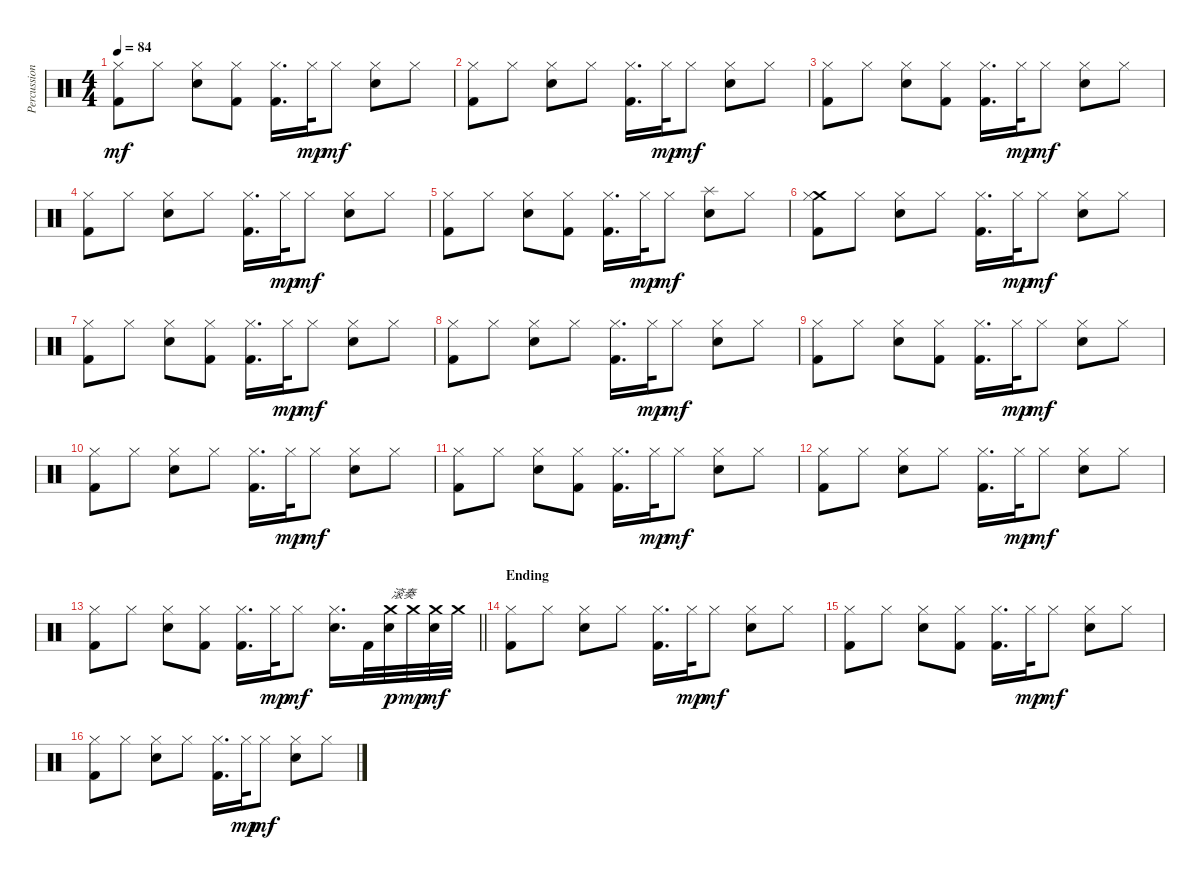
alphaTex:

\track ("Percussion" "Percussion") {instrument percussion}
\staff {score}
\articulation defaults
\ts (4 4)
\tempo 84
\clef neutral
\ks c
("Hi-Hat (closed)" "Kick (hit) 2").8{dy mf} "Hi-Hat (closed)".8 ("Hi-Hat (closed)" "Electric Snare (hit)").8 ("Hi-Hat (closed)" "Kick (hit) 2").8 ("Hi-Hat (closed)" "Kick (hit) 2").16{d} "Hi-Hat (closed)".32{dy mp} "Hi-Hat (closed)".8{dy mf} ("Hi-Hat (closed)" "Electric Snare (hit)").8 "Hi-Hat (closed)".8 |
("Hi-Hat (closed)" "Kick (hit) 2").8 "Hi-Hat (closed)".8 ("Hi-Hat (closed)" "Electric Snare (hit)").8 "Hi-Hat (closed)".8 ("Hi-Hat (closed)" "Kick (hit) 2").16{d} "Hi-Hat (closed)".32{dy mp} "Hi-Hat (closed)".8{dy mf} ("Hi-Hat (closed)" "Electric Snare (hit)").8 "Hi-Hat (closed)".8 |
("Hi-Hat (closed)" "Kick (hit) 2").8 "Hi-Hat (closed)".8 ("Hi-Hat (closed)" "Electric Snare (hit)").8 ("Hi-Hat (closed)" "Kick (hit) 2").8 ("Hi-Hat (closed)" "Kick (hit) 2").16{d} "Hi-Hat (closed)".32{dy mp} "Hi-Hat (closed)".8{dy mf} ("Hi-Hat (closed)" "Electric Snare (hit)").8 "Hi-Hat (closed)".8 |
("Hi-Hat (closed)" "Kick (hit) 2").8 "Hi-Hat (closed)".8 ("Hi-Hat (closed)" "Electric Snare (hit)").8 "Hi-Hat (closed)".8 ("Hi-Hat (closed)" "Kick (hit) 2").16{d} "Hi-Hat (closed)".32{dy mp} "Hi-Hat (closed)".8{dy mf} ("Hi-Hat (closed)" "Electric Snare (hit)").8 "Hi-Hat (closed)".8 |
("Hi-Hat (closed)" "Kick (hit) 2").8 "Hi-Hat (closed)".8 ("Hi-Hat (closed)" "Electric Snare (hit)").8 ("Hi-Hat (closed)" "Kick (hit) 2").8 ("Hi-Hat (closed)" "Kick (hit) 2").16{d} "Hi-Hat (closed)".32{dy mp} "Hi-Hat (closed)".8{dy mf} ("Splash (hit)" "Electric Snare (hit)").8 "Hi-Hat (closed)".8 |
("Crash medium (hit)" "Hi-Hat (closed)" "Kick (hit) 2").8 "Hi-Hat (closed)".8 ("Hi-Hat (closed)" "Electric Snare (hit)").8 "Hi-Hat (closed)".8 ("Hi-Hat (closed)" "Kick (hit) 2").16{d} "Hi-Hat (closed)".32{dy mp} "Hi-Hat (closed)".8{dy mf} ("Hi-Hat (closed)" "Electric Snare (hit)").8 "Hi-Hat (closed)".8 |
("Hi-Hat (closed)" "Kick (hit) 2").8 "Hi-Hat (closed)".8 ("Hi-Hat (closed)" "Electric Snare (hit)").8 ("Hi-Hat (closed)" "Kick (hit) 2").8 ("Hi-Hat (closed)" "Kick (hit) 2").16{d} "Hi-Hat (closed)".32{dy mp} "Hi-Hat (closed)".8{dy mf} ("Hi-Hat (closed)" "Electric Snare (hit)").8 "Hi-Hat (closed)".8 |
("Hi-Hat (closed)" "Kick (hit) 2").8 "Hi-Hat (closed)".8 ("Hi-Hat (closed)" "Electric Snare (hit)").8 "Hi-Hat (closed)".8 ("Hi-Hat (closed)" "Kick (hit) 2").16{d} "Hi-Hat (closed)".32{dy mp} "Hi-Hat (closed)".8{dy mf} ("Hi-Hat (closed)" "Electric Snare (hit)").8 "Hi-Hat (closed)".8 |
("Hi-Hat (closed)" "Kick (hit) 2").8 "Hi-Hat (closed)".8 ("Hi-Hat (closed)" "Electric Snare (hit)").8 ("Hi-Hat (closed)" "Kick (hit) 2").8 ("Hi-Hat (closed)" "Kick (hit) 2").16{d} "Hi-Hat (closed)".32{dy mp} "Hi-Hat (closed)".8{dy mf} ("Hi-Hat (closed)" "Electric Snare (hit)").8 "Hi-Hat (closed)".8 |
("Hi-Hat (closed)" "Kick (hit) 2").8 "Hi-Hat (closed)".8 ("Hi-Hat (closed)" "Electric Snare (hit)").8 "Hi-Hat (closed)".8 ("Hi-Hat (closed)" "Kick (hit) 2").16{d} "Hi-Hat (closed)".32{dy mp} "Hi-Hat (closed)".8{dy mf} ("Hi-Hat (closed)" "Electric Snare (hit)").8 "Hi-Hat (closed)".8 |
("Hi-Hat (closed)" "Kick (hit) 2").8 "Hi-Hat (closed)".8 ("Hi-Hat (closed)" "Electric Snare (hit)").8 ("Hi-Hat (closed)" "Kick (hit) 2").8 ("Hi-Hat (closed)" "Kick (hit) 2").16{d} "Hi-Hat (closed)".32{dy mp} "Hi-Hat (closed)".8{dy mf} ("Hi-Hat (closed)" "Electric Snare (hit)").8 "Hi-Hat (closed)".8 |
("Hi-Hat (closed)" "Kick (hit) 2").8 "Hi-Hat (closed)".8 ("Hi-Hat (closed)" "Electric Snare (hit)").8 "Hi-Hat (closed)".8 ("Hi-Hat (closed)" "Kick (hit) 2").16{d} "Hi-Hat (closed)".32{dy mp} "Hi-Hat (closed)".8{dy mf} ("Hi-Hat (closed)" "Electric Snare (hit)").8 "Hi-Hat (closed)".8 |
\barLineRight lightlight
("Hi-Hat (closed)" "Kick (hit) 2").8 "Hi-Hat (closed)".8 ("Hi-Hat (closed)" "Electric Snare (hit)").8 ("Hi-Hat (closed)" "Kick (hit) 2").8 ("Hi-Hat (closed)" "Kick (hit) 2").16{d} "Hi-Hat (closed)".32{dy mp} "Hi-Hat (closed)".8{dy mf} ("Hi-Hat (closed)" "Electric Snare (hit)").16{d} "Kick (hit) 2".32 ("Crash medium (hit)" "Electric Snare (hit)").32{txt "滚奏" dy p} "Crash medium (hit)".32{dy mp} ("Crash medium (hit)" "Electric Snare (hit)").32{dy mf} "Crash medium (hit)".32 |
\section ("" "Ending")
("Hi-Hat (closed)" "Kick (hit) 2").8 "Hi-Hat (closed)".8 ("Hi-Hat (closed)" "Electric Snare (hit)").8 "Hi-Hat (closed)".8 ("Hi-Hat (closed)" "Kick (hit) 2").16{d} "Hi-Hat (closed)".32{dy mp} "Hi-Hat (closed)".8{dy mf} ("Hi-Hat (closed)" "Electric Snare (hit)").8 "Hi-Hat (closed)".8 |
("Hi-Hat (closed)" "Kick (hit) 2").8 "Hi-Hat (closed)".8 ("Hi-Hat (closed)" "Electric Snare (hit)").8 ("Hi-Hat (closed)" "Kick (hit) 2").8 ("Hi-Hat (closed)" "Kick (hit) 2").16{d} "Hi-Hat (closed)".32{dy mp} "Hi-Hat (closed)".8{dy mf} ("Hi-Hat (closed)" "Electric Snare (hit)").8 "Hi-Hat (closed)".8 |
("Hi-Hat (closed)" "Kick (hit) 2").8 "Hi-Hat (closed)".8 ("Hi-Hat (closed)" "Electric Snare (hit)").8 "Hi-Hat (closed)".8 ("Hi-Hat (closed)" "Kick (hit) 2").16{d} "Hi-Hat (closed)".32{dy mp} "Hi-Hat (closed)".8{dy mf} ("Hi-Hat (closed)" "Electric Snare (hit)").8 "Hi-Hat (closed)".8
